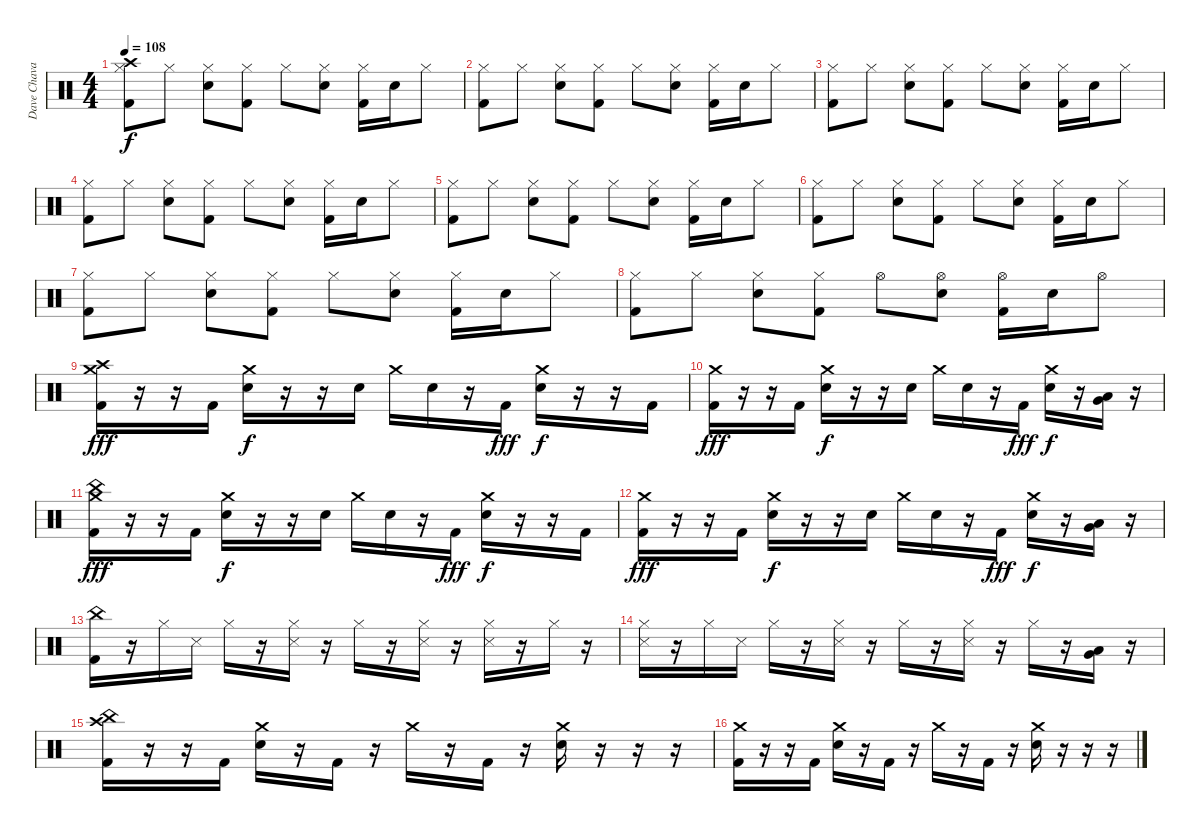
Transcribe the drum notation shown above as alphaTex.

\track ("Dave Chavarri [Drums]" "Dave Chava") {instrument percussion}
\staff {score}
\articulation defaults
\ts (4 4)
\tempo 108
\clef neutral
\ks c
("Crash high (hit)" "Hi-Hat (closed)" "Kick (hit) 2").8{dy f} "Hi-Hat (closed)".8 ("Hi-Hat (closed)" "Electric Snare (hit)").8 ("Hi-Hat (closed)" "Kick (hit) 2").8 "Hi-Hat (closed)".8 ("Hi-Hat (closed)" "Electric Snare (hit)").8 ("Hi-Hat (closed)" "Kick (hit) 2").16 "Electric Snare (hit)".16 "Hi-Hat (closed)".8 |
("Hi-Hat (closed)" "Kick (hit) 2").8 "Hi-Hat (closed)".8 ("Hi-Hat (closed)" "Electric Snare (hit)").8 ("Hi-Hat (closed)" "Kick (hit) 2").8 "Hi-Hat (closed)".8 ("Hi-Hat (closed)" "Electric Snare (hit)").8 ("Hi-Hat (closed)" "Kick (hit) 2").16 "Electric Snare (hit)".16 "Hi-Hat (closed)".8 |
("Hi-Hat (closed)" "Kick (hit) 2").8 "Hi-Hat (closed)".8 ("Hi-Hat (closed)" "Electric Snare (hit)").8 ("Hi-Hat (closed)" "Kick (hit) 2").8 "Hi-Hat (closed)".8 ("Hi-Hat (closed)" "Electric Snare (hit)").8 ("Hi-Hat (closed)" "Kick (hit) 2").16 "Electric Snare (hit)".16 "Hi-Hat (closed)".8 |
("Hi-Hat (closed)" "Kick (hit) 2").8 "Hi-Hat (closed)".8 ("Hi-Hat (closed)" "Electric Snare (hit)").8 ("Hi-Hat (closed)" "Kick (hit) 2").8 "Hi-Hat (closed)".8 ("Hi-Hat (closed)" "Electric Snare (hit)").8 ("Hi-Hat (closed)" "Kick (hit) 2").16 "Electric Snare (hit)".16 "Hi-Hat (closed)".8 |
("Hi-Hat (closed)" "Kick (hit) 2").8 "Hi-Hat (closed)".8 ("Hi-Hat (closed)" "Electric Snare (hit)").8 ("Hi-Hat (closed)" "Kick (hit) 2").8 "Hi-Hat (closed)".8 ("Hi-Hat (closed)" "Electric Snare (hit)").8 ("Hi-Hat (closed)" "Kick (hit) 2").16 "Electric Snare (hit)".16 "Hi-Hat (closed)".8 |
("Hi-Hat (closed)" "Kick (hit) 2").8 "Hi-Hat (closed)".8 ("Hi-Hat (closed)" "Electric Snare (hit)").8 ("Hi-Hat (closed)" "Kick (hit) 2").8 "Hi-Hat (closed)".8 ("Hi-Hat (closed)" "Electric Snare (hit)").8 ("Hi-Hat (closed)" "Kick (hit) 2").16 "Electric Snare (hit)".16 "Hi-Hat (closed)".8 |
("Hi-Hat (closed)" "Kick (hit) 2").8 "Hi-Hat (closed)".8 ("Hi-Hat (closed)" "Electric Snare (hit)").8 ("Hi-Hat (closed)" "Kick (hit) 2").8 "Hi-Hat (closed)".8 ("Hi-Hat (closed)" "Electric Snare (hit)").8 ("Hi-Hat (closed)" "Kick (hit) 2").16 "Electric Snare (hit)".16 "Hi-Hat (closed)".8 |
("Hi-Hat (closed)" "Kick (hit) 2").8 "Hi-Hat (closed)".8 ("Hi-Hat (closed)" "Electric Snare (hit)").8 ("Hi-Hat (closed)" "Kick (hit) 2").8 "Hi-Hat (open)".8 ("Hi-Hat (open)" "Electric Snare (hit)").8 ("Hi-Hat (open)" "Kick (hit) 2").16 "Electric Snare (hit)".16 "Hi-Hat (open)".8 |
("Crash medium (hit)" "Crash high (hit)" "Kick (hit) 2").16{dy fff} r.16 r.16 "Kick (hit) 2".16 ("Crash medium (hit)" "Electric Snare (hit)").16{dy f} r.16 r.16 "Electric Snare (hit)".16 "Crash medium (hit)".16 "Electric Snare (hit)".16 r.16 "Kick (hit) 2".16{dy fff} ("Crash medium (hit)" "Electric Snare (hit)").16{dy f} r.16 r.16 "Kick (hit) 2".16 |
("Crash medium (hit)" "Kick (hit) 2").16{dy fff} r.16 r.16 "Kick (hit) 2".16 ("Crash medium (hit)" "Electric Snare (hit)").16{dy f} r.16 r.16 "Electric Snare (hit)".16 "Crash medium (hit)".16 "Electric Snare (hit)".16 r.16 "Kick (hit) 2".16{dy fff} ("Crash medium (hit)" "Electric Snare (hit)").16{dy f} r.16 ("Low Tom (hit)" "Very Low Tom (hit)").16 r.16 |
("Crash medium (hit)" "China (hit)" "Kick (hit) 2").16{dy fff} r.16 r.16 "Kick (hit) 2".16 ("Crash medium (hit)" "Electric Snare (hit)").16{dy f} r.16 r.16 "Electric Snare (hit)".16 "Crash medium (hit)".16 "Electric Snare (hit)".16 r.16 "Kick (hit) 2".16{dy fff} ("Crash medium (hit)" "Electric Snare (hit)").16{dy f} r.16 r.16 "Kick (hit) 2".16 |
("Crash medium (hit)" "Kick (hit) 2").16{dy fff} r.16 r.16 "Kick (hit) 2".16 ("Crash medium (hit)" "Electric Snare (hit)").16{dy f} r.16 r.16 "Electric Snare (hit)".16 "Crash medium (hit)".16 "Electric Snare (hit)".16 r.16 "Kick (hit) 2".16{dy fff} ("Crash medium (hit)" "Electric Snare (hit)").16{dy f} r.16 ("Low Tom (hit)" "Very Low Tom (hit)").16 r.16 |
("China (hit)" "Kick (hit) 2").16 r.16 "Hi-Hat (closed)".16 "Snare (side stick) 3".16 "Hi-Hat (closed)".16 r.16 ("Hi-Hat (closed)" "Snare (side stick) 3").16 r.16 "Hi-Hat (closed)".16 r.16 ("Hi-Hat (closed)" "Snare (side stick) 3").16 r.16 ("Hi-Hat (closed)" "Snare (side stick) 3").16 r.16 "Hi-Hat (closed)".16 r.16 |
("Hi-Hat (closed)" "Snare (side stick) 3").16 r.16 "Hi-Hat (closed)".16 "Snare (side stick) 3".16 "Hi-Hat (closed)".16 r.16 ("Hi-Hat (closed)" "Snare (side stick) 3").16 r.16 "Hi-Hat (closed)".16 r.16 ("Hi-Hat (closed)" "Snare (side stick) 3").16 r.16 "Hi-Hat (closed)".16 r.16 ("Low Tom (hit)" "Very Low Tom (hit)").16 r.16 |
("Crash high (hit)" "China (hit)" "Kick (hit) 2").16 r.16 r.16 "Kick (hit) 2".16 ("Crash medium (hit)" "Electric Snare (hit)").16 r.16 "Kick (hit) 2".16 r.16 "Crash medium (hit)".16 r.16 "Kick (hit) 2".16 r.16 ("Crash medium (hit)" "Electric Snare (hit)").16 r.16 r.16 r.16 |
("Crash medium (hit)" "Kick (hit) 2").16 r.16 r.16 "Kick (hit) 2".16 ("Crash medium (hit)" "Electric Snare (hit)").16 r.16 "Kick (hit) 2".16 r.16 "Crash medium (hit)".16 r.16 "Kick (hit) 2".16 r.16 ("Crash medium (hit)" "Electric Snare (hit)").16 r.16 r.16 r.16
